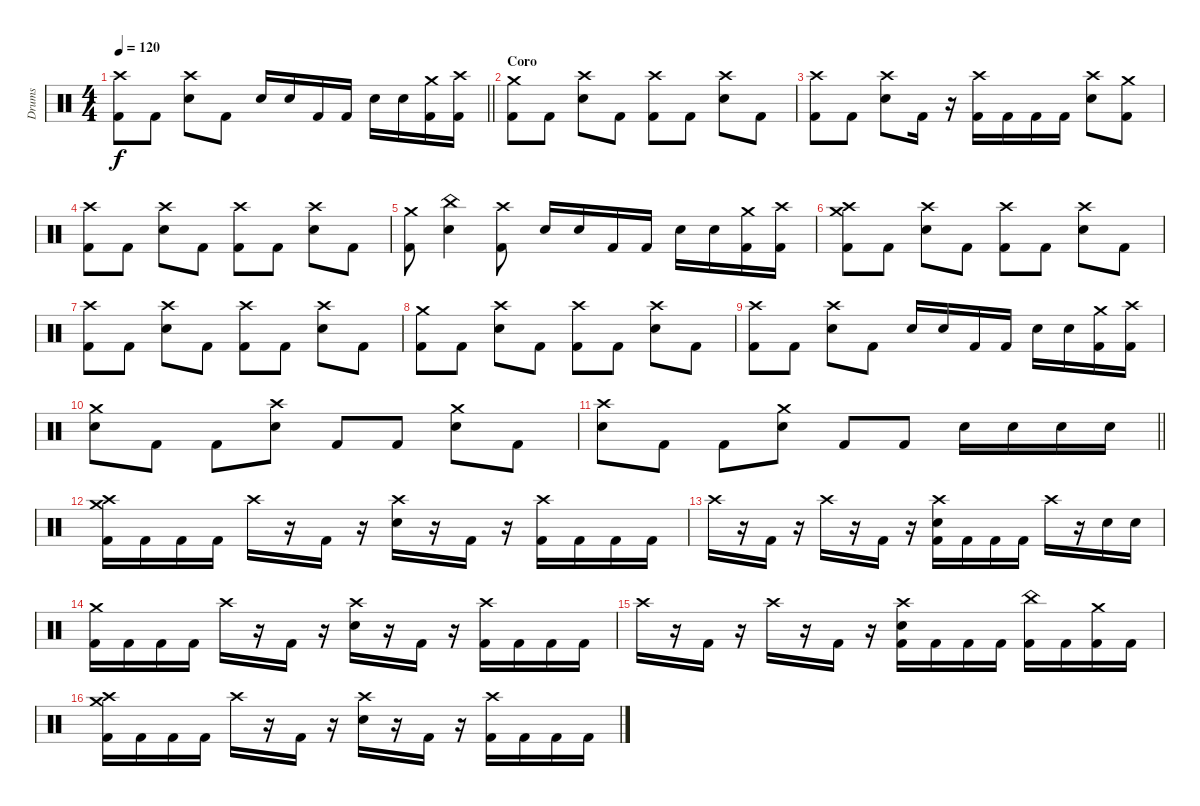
\track ("Drums " "Drums ") {instrument percussion}
\staff {score}
\articulation defaults
\ts (4 4)
\tempo 120
\clef neutral
\barLineRight lightlight
\ks c
("Crash high (hit)" "Kick (hit) 2").8{dy f} "Kick (hit) 2".8 ("Crash high (hit)" "Electric Snare (hit)").8 "Kick (hit) 2".8 "Electric Snare (hit)".16 "Electric Snare (hit)".16 "Kick (hit) 2".16 "Kick (hit) 2".16 "Electric Snare (hit)".16 "Electric Snare (hit)".16 ("Crash medium (hit)" "Kick (hit) 2").16 ("Crash high (hit)" "Kick (hit) 2").16 |
\section ("" "Coro")
("Crash medium (hit)" "Kick (hit) 2").8 "Kick (hit) 2".8 ("Crash high (hit)" "Electric Snare (hit)").8 "Kick (hit) 2".8 ("Crash high (hit)" "Kick (hit) 2").8 "Kick (hit) 2".8 ("Crash high (hit)" "Electric Snare (hit)").8 "Kick (hit) 2".8 |
("Crash high (hit)" "Kick (hit) 2").8 "Kick (hit) 2".8 ("Crash high (hit)" "Electric Snare (hit)").8 "Kick (hit) 2".16 r.16 ("Crash high (hit)" "Kick (hit) 2").16 "Kick (hit) 2".16 "Kick (hit) 2".16 "Kick (hit) 2".16 ("Crash high (hit)" "Electric Snare (hit)").8 ("Crash medium (hit)" "Kick (hit) 2").8 |
("Crash high (hit)" "Kick (hit) 2").8 "Kick (hit) 2".8 ("Crash high (hit)" "Electric Snare (hit)").8 "Kick (hit) 2".8 ("Crash high (hit)" "Kick (hit) 2").8 "Kick (hit) 2".8 ("Crash high (hit)" "Electric Snare (hit)").8 "Kick (hit) 2".8 |
("Crash medium (hit)" "Kick (hit) 2").8 ("China (hit)" "Electric Snare (hit)").4 ("Crash high (hit)" "Kick (hit) 2").8 "Electric Snare (hit)".16 "Electric Snare (hit)".16 "Kick (hit) 2".16 "Kick (hit) 2".16 "Electric Snare (hit)".16 "Electric Snare (hit)".16 ("Crash medium (hit)" "Kick (hit) 2").16 ("Crash high (hit)" "Kick (hit) 2").16 |
("Crash high (hit)" "Crash medium (hit)" "Kick (hit) 2").8 "Kick (hit) 2".8 ("Crash high (hit)" "Electric Snare (hit)").8 "Kick (hit) 2".8 ("Crash high (hit)" "Kick (hit) 2").8 "Kick (hit) 2".8 ("Crash high (hit)" "Electric Snare (hit)").8 "Kick (hit) 2".8 |
("Crash high (hit)" "Kick (hit) 2").8 "Kick (hit) 2".8 ("Crash high (hit)" "Electric Snare (hit)").8 "Kick (hit) 2".8 ("Crash high (hit)" "Kick (hit) 2").8 "Kick (hit) 2".8 ("Crash high (hit)" "Electric Snare (hit)").8 "Kick (hit) 2".8 |
("Crash medium (hit)" "Kick (hit) 2").8 "Kick (hit) 2".8 ("Crash high (hit)" "Electric Snare (hit)").8 "Kick (hit) 2".8 ("Crash high (hit)" "Kick (hit) 2").8 "Kick (hit) 2".8 ("Crash high (hit)" "Electric Snare (hit)").8 "Kick (hit) 2".8 |
("Crash high (hit)" "Kick (hit) 2").8 "Kick (hit) 2".8 ("Crash high (hit)" "Electric Snare (hit)").8 "Kick (hit) 2".8 "Electric Snare (hit)".16 "Electric Snare (hit)".16 "Kick (hit) 2".16 "Kick (hit) 2".16 "Electric Snare (hit)".16 "Electric Snare (hit)".16 ("Crash medium (hit)" "Kick (hit) 2").16 ("Crash high (hit)" "Kick (hit) 2").16 |
("Crash medium (hit)" "Electric Snare (hit)").8 "Kick (hit) 2".8 "Kick (hit) 2".8 ("Crash high (hit)" "Electric Snare (hit)").8 "Kick (hit) 2".8 "Kick (hit) 2".8 ("Crash medium (hit)" "Electric Snare (hit)").8 "Kick (hit) 2".8 |
\barLineRight lightlight
("Crash high (hit)" "Electric Snare (hit)").8 "Kick (hit) 2".8 "Kick (hit) 2".8 ("Crash medium (hit)" "Electric Snare (hit)").8 "Kick (hit) 2".8 "Kick (hit) 2".8 "Electric Snare (hit)".16 "Electric Snare (hit)".16 "Electric Snare (hit)".16 "Electric Snare (hit)".16 |
\section ("" "")
("Crash medium (hit)" "Crash high (hit)" "Kick (hit) 2").16 "Kick (hit) 2".16 "Kick (hit) 2".16 "Kick (hit) 2".16 "Crash high (hit)".16 r.16 "Kick (hit) 2".16 r.16 ("Crash high (hit)" "Electric Snare (hit)").16 r.16 "Kick (hit) 2".16 r.16 ("Crash high (hit)" "Kick (hit) 2").16 "Kick (hit) 2".16 "Kick (hit) 2".16 "Kick (hit) 2".16 |
"Crash high (hit)".16 r.16 "Kick (hit) 2".16 r.16 "Crash high (hit)".16 r.16 "Kick (hit) 2".16 r.16 ("Crash high (hit)" "Electric Snare (hit)" "Kick (hit) 2").16 "Kick (hit) 2".16 "Kick (hit) 2".16 "Kick (hit) 2".16 "Crash high (hit)".16 r.16 "Electric Snare (hit)".16 "Electric Snare (hit)".16 |
("Crash medium (hit)" "Kick (hit) 2").16 "Kick (hit) 2".16 "Kick (hit) 2".16 "Kick (hit) 2".16 "Crash high (hit)".16 r.16 "Kick (hit) 2".16 r.16 ("Crash high (hit)" "Electric Snare (hit)").16 r.16 "Kick (hit) 2".16 r.16 ("Crash high (hit)" "Kick (hit) 2").16 "Kick (hit) 2".16 "Kick (hit) 2".16 "Kick (hit) 2".16 |
"Crash high (hit)".16 r.16 "Kick (hit) 2".16 r.16 "Crash high (hit)".16 r.16 "Kick (hit) 2".16 r.16 ("Crash high (hit)" "Electric Snare (hit)" "Kick (hit) 2").16 "Kick (hit) 2".16 "Kick (hit) 2".16 "Kick (hit) 2".16 ("China (hit)" "Kick (hit) 2").16 "Kick (hit) 2".16 ("Crash medium (hit)" "Kick (hit) 2").16 "Kick (hit) 2".16 |
("Crash medium (hit)" "Crash high (hit)" "Kick (hit) 2").16 "Kick (hit) 2".16 "Kick (hit) 2".16 "Kick (hit) 2".16 "Crash high (hit)".16 r.16 "Kick (hit) 2".16 r.16 ("Crash high (hit)" "Electric Snare (hit)").16 r.16 "Kick (hit) 2".16 r.16 ("Crash high (hit)" "Kick (hit) 2").16 "Kick (hit) 2".16 "Kick (hit) 2".16 "Kick (hit) 2".16
